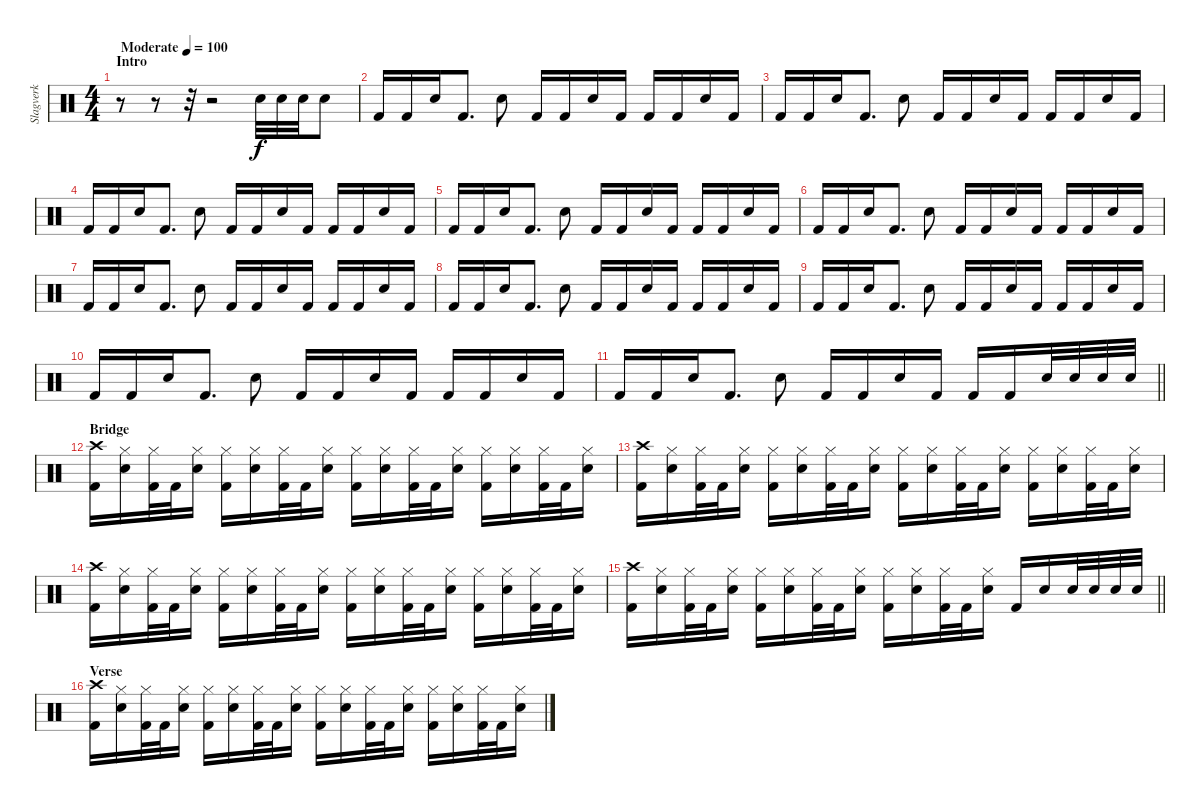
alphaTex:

\track ("Slagverk" "Slagverk") {instrument percussion}
\staff {score}
\articulation defaults
\ts (4 4)
\section ("" "Intro")
\tempo (100 "Moderate")
\clef neutral
\ks c
r.8{dy f} r.8 r.32 r.2 "Snare (hit) 2".32 "Snare (hit) 2".32 "Snare (hit) 2".32 "Snare (hit) 2".8 |
"Kick (hit) 2".16 "Kick (hit) 2".16 "Snare (hit) 2".16 "Kick (hit) 2".8{d} "Snare (hit) 2".8 "Kick (hit) 2".16 "Kick (hit) 2".16 "Snare (hit) 2".16 "Kick (hit) 2".16 "Kick (hit) 2".16 "Kick (hit) 2".16 "Snare (hit) 2".16 "Kick (hit) 2".16 |
"Kick (hit) 2".16 "Kick (hit) 2".16 "Snare (hit) 2".16 "Kick (hit) 2".8{d} "Snare (hit) 2".8 "Kick (hit) 2".16 "Kick (hit) 2".16 "Snare (hit) 2".16 "Kick (hit) 2".16 "Kick (hit) 2".16 "Kick (hit) 2".16 "Snare (hit) 2".16 "Kick (hit) 2".16 |
"Kick (hit) 2".16 "Kick (hit) 2".16 "Snare (hit) 2".16 "Kick (hit) 2".8{d} "Snare (hit) 2".8 "Kick (hit) 2".16 "Kick (hit) 2".16 "Snare (hit) 2".16 "Kick (hit) 2".16 "Kick (hit) 2".16 "Kick (hit) 2".16 "Snare (hit) 2".16 "Kick (hit) 2".16 |
"Kick (hit) 2".16 "Kick (hit) 2".16 "Snare (hit) 2".16 "Kick (hit) 2".8{d} "Snare (hit) 2".8 "Kick (hit) 2".16 "Kick (hit) 2".16 "Snare (hit) 2".16 "Kick (hit) 2".16 "Kick (hit) 2".16 "Kick (hit) 2".16 "Snare (hit) 2".16 "Kick (hit) 2".16 |
"Kick (hit) 2".16 "Kick (hit) 2".16 "Snare (hit) 2".16 "Kick (hit) 2".8{d} "Snare (hit) 2".8 "Kick (hit) 2".16 "Kick (hit) 2".16 "Snare (hit) 2".16 "Kick (hit) 2".16 "Kick (hit) 2".16 "Kick (hit) 2".16 "Snare (hit) 2".16 "Kick (hit) 2".16 |
"Kick (hit) 2".16 "Kick (hit) 2".16 "Snare (hit) 2".16 "Kick (hit) 2".8{d} "Snare (hit) 2".8 "Kick (hit) 2".16 "Kick (hit) 2".16 "Snare (hit) 2".16 "Kick (hit) 2".16 "Kick (hit) 2".16 "Kick (hit) 2".16 "Snare (hit) 2".16 "Kick (hit) 2".16 |
"Kick (hit) 2".16 "Kick (hit) 2".16 "Snare (hit) 2".16 "Kick (hit) 2".8{d} "Snare (hit) 2".8 "Kick (hit) 2".16 "Kick (hit) 2".16 "Snare (hit) 2".16 "Kick (hit) 2".16 "Kick (hit) 2".16 "Kick (hit) 2".16 "Snare (hit) 2".16 "Kick (hit) 2".16 |
"Kick (hit) 2".16 "Kick (hit) 2".16 "Snare (hit) 2".16 "Kick (hit) 2".8{d} "Snare (hit) 2".8 "Kick (hit) 2".16 "Kick (hit) 2".16 "Snare (hit) 2".16 "Kick (hit) 2".16 "Kick (hit) 2".16 "Kick (hit) 2".16 "Snare (hit) 2".16 "Kick (hit) 2".16 |
"Kick (hit) 2".16 "Kick (hit) 2".16 "Snare (hit) 2".16 "Kick (hit) 2".8{d} "Snare (hit) 2".8 "Kick (hit) 2".16 "Kick (hit) 2".16 "Snare (hit) 2".16 "Kick (hit) 2".16 "Kick (hit) 2".16 "Kick (hit) 2".16 "Snare (hit) 2".16 "Kick (hit) 2".16 |
\barLineRight lightlight "Kick (hit) 2".16 "Kick (hit) 2".16 "Snare (hit) 2".16 "Kick (hit) 2".8{d} "Snare (hit) 2".8 "Kick (hit) 2".16 "Kick (hit) 2".16 "Snare (hit) 2".16 "Kick (hit) 2".16 "Kick (hit) 2".16 "Kick (hit) 2".16 "Snare (hit) 2".32 "Snare (hit) 2".32 "Snare (hit) 2".32 "Snare (hit) 2".32
|
\section ("" "Bridge")
("Kick (hit) 2" "Crash high (hit)").16 ("Snare (hit) 2" "Hi-Hat (closed)").16 ("Kick (hit) 2" "Hi-Hat (closed)").32 "Kick (hit) 2".32 ("Snare (hit) 2" "Hi-Hat (closed)").16 ("Kick (hit) 2" "Hi-Hat (closed)").16 ("Snare (hit) 2" "Hi-Hat (closed)").16 ("Kick (hit) 2" "Hi-Hat (closed)").32 "Kick (hit) 2".32 ("Snare (hit) 2" "Hi-Hat (closed)").16 ("Kick (hit) 2" "Hi-Hat (closed)").16 ("Snare (hit) 2" "Hi-Hat (closed)").16 ("Kick (hit) 2" "Hi-Hat (closed)").32 "Kick (hit) 2".32 ("Snare (hit) 2" "Hi-Hat (closed)").16 ("Kick (hit) 2" "Hi-Hat (closed)").16 ("Snare (hit) 2" "Hi-Hat (closed)").16 ("Kick (hit) 2" "Hi-Hat (closed)").32 "Kick (hit) 2".32 ("Snare (hit) 2" "Hi-Hat (closed)").16 |
("Kick (hit) 2" "Crash high (hit)").16 ("Snare (hit) 2" "Hi-Hat (closed)").16 ("Kick (hit) 2" "Hi-Hat (closed)").32 "Kick (hit) 2".32 ("Snare (hit) 2" "Hi-Hat (closed)").16 ("Kick (hit) 2" "Hi-Hat (closed)").16 ("Snare (hit) 2" "Hi-Hat (closed)").16 ("Kick (hit) 2" "Hi-Hat (closed)").32 "Kick (hit) 2".32 ("Snare (hit) 2" "Hi-Hat (closed)").16 ("Kick (hit) 2" "Hi-Hat (closed)").16 ("Snare (hit) 2" "Hi-Hat (closed)").16 ("Kick (hit) 2" "Hi-Hat (closed)").32 "Kick (hit) 2".32 ("Snare (hit) 2" "Hi-Hat (closed)").16 ("Kick (hit) 2" "Hi-Hat (closed)").16 ("Snare (hit) 2" "Hi-Hat (closed)").16 ("Kick (hit) 2" "Hi-Hat (closed)").32 "Kick (hit) 2".32 ("Snare (hit) 2" "Hi-Hat (closed)").16 |
("Kick (hit) 2" "Crash high (hit)").16 ("Snare (hit) 2" "Hi-Hat (closed)").16 ("Kick (hit) 2" "Hi-Hat (closed)").32 "Kick (hit) 2".32 ("Snare (hit) 2" "Hi-Hat (closed)").16 ("Kick (hit) 2" "Hi-Hat (closed)").16 ("Snare (hit) 2" "Hi-Hat (closed)").16 ("Kick (hit) 2" "Hi-Hat (closed)").32 "Kick (hit) 2".32 ("Snare (hit) 2" "Hi-Hat (closed)").16 ("Kick (hit) 2" "Hi-Hat (closed)").16 ("Snare (hit) 2" "Hi-Hat (closed)").16 ("Kick (hit) 2" "Hi-Hat (closed)").32 "Kick (hit) 2".32 ("Snare (hit) 2" "Hi-Hat (closed)").16 ("Kick (hit) 2" "Hi-Hat (closed)").16 ("Snare (hit) 2" "Hi-Hat (closed)").16 ("Kick (hit) 2" "Hi-Hat (closed)").32 "Kick (hit) 2".32 ("Snare (hit) 2" "Hi-Hat (closed)").16 |
\barLineRight lightlight
("Kick (hit) 2" "Crash high (hit)").16 ("Snare (hit) 2" "Hi-Hat (closed)").16 ("Kick (hit) 2" "Hi-Hat (closed)").32 "Kick (hit) 2".32 ("Snare (hit) 2" "Hi-Hat (closed)").16 ("Kick (hit) 2" "Hi-Hat (closed)").16 ("Snare (hit) 2" "Hi-Hat (closed)").16 ("Kick (hit) 2" "Hi-Hat (closed)").32 "Kick (hit) 2".32 ("Snare (hit) 2" "Hi-Hat (closed)").16 ("Kick (hit) 2" "Hi-Hat (closed)").16 ("Snare (hit) 2" "Hi-Hat (closed)").16 ("Kick (hit) 2" "Hi-Hat (closed)").32 "Kick (hit) 2".32 ("Snare (hit) 2" "Hi-Hat (closed)").16 "Kick (hit) 2".16 "Snare (hit) 2".16 "Snare (hit) 2".32 "Snare (hit) 2".32 "Snare (hit) 2".32 "Snare (hit) 2".32 |
\section ("" "Verse")
("Kick (hit) 2" "Crash high (hit)").16 ("Snare (hit) 2" "Hi-Hat (closed)").16 ("Kick (hit) 2" "Hi-Hat (closed)").32 "Kick (hit) 2".32 ("Snare (hit) 2" "Hi-Hat (closed)").16 ("Kick (hit) 2" "Hi-Hat (closed)").16 ("Snare (hit) 2" "Hi-Hat (closed)").16 ("Kick (hit) 2" "Hi-Hat (closed)").32 "Kick (hit) 2".32 ("Snare (hit) 2" "Hi-Hat (closed)").16 ("Kick (hit) 2" "Hi-Hat (closed)").16 ("Snare (hit) 2" "Hi-Hat (closed)").16 ("Kick (hit) 2" "Hi-Hat (closed)").32 "Kick (hit) 2".32 ("Snare (hit) 2" "Hi-Hat (closed)").16 ("Kick (hit) 2" "Hi-Hat (closed)").16 ("Snare (hit) 2" "Hi-Hat (closed)").16 ("Kick (hit) 2" "Hi-Hat (closed)").32 "Kick (hit) 2".32 ("Snare (hit) 2" "Hi-Hat (closed)").16
